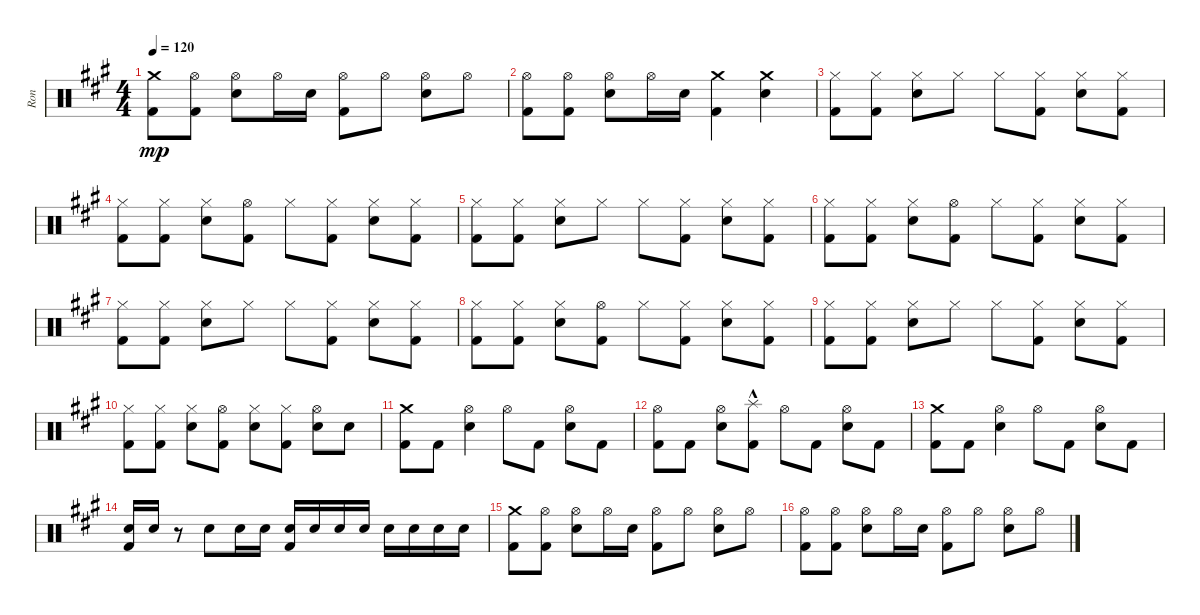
\track ("Ron" "Ron") {instrument percussion}
\staff {score}
\articulation defaults
\ts (4 4)
\tempo 120
\clef neutral
\ks a
("Crash medium (hit)" "Kick (hit) 2").8{dy mp} ("Hi-Hat (open)" "Kick (hit) 2").8 ("Hi-Hat (open)" "Electric Snare (hit)").8 "Hi-Hat (open)".16 "Electric Snare (hit)".16 ("Hi-Hat (open)" "Kick (hit) 2").8 "Hi-Hat (open)".8 ("Hi-Hat (open)" "Electric Snare (hit)").8 "Hi-Hat (open)".8 |
("Hi-Hat (open)" "Kick (hit) 2").8 ("Hi-Hat (open)" "Kick (hit) 2").8 ("Hi-Hat (open)" "Electric Snare (hit)").8 "Hi-Hat (open)".16 "Electric Snare (hit)".16 ("Crash medium (hit)" "Kick (hit) 2").4 ("Crash medium (hit)" "Electric Snare (hit)").4 |
("Hi-Hat (closed)" "Kick (hit) 2").8 ("Hi-Hat (closed)" "Kick (hit) 2").8 ("Hi-Hat (closed)" "Electric Snare (hit)").8 "Hi-Hat (closed)".8 "Hi-Hat (closed)".8 ("Hi-Hat (closed)" "Kick (hit) 2").8 ("Hi-Hat (closed)" "Electric Snare (hit)").8 ("Hi-Hat (closed)" "Kick (hit) 2").8 |
("Hi-Hat (closed)" "Kick (hit) 2").8 ("Hi-Hat (closed)" "Kick (hit) 2").8 ("Hi-Hat (closed)" "Electric Snare (hit)").8 ("Hi-Hat (open)" "Kick (hit) 2").8 "Hi-Hat (closed)".8 ("Hi-Hat (closed)" "Kick (hit) 2").8 ("Hi-Hat (closed)" "Electric Snare (hit)").8 ("Hi-Hat (closed)" "Kick (hit) 2").8 |
("Hi-Hat (closed)" "Kick (hit) 2").8 ("Hi-Hat (closed)" "Kick (hit) 2").8 ("Hi-Hat (closed)" "Electric Snare (hit)").8 "Hi-Hat (closed)".8 "Hi-Hat (closed)".8 ("Hi-Hat (closed)" "Kick (hit) 2").8 ("Hi-Hat (closed)" "Electric Snare (hit)").8 ("Hi-Hat (closed)" "Kick (hit) 2").8 |
("Hi-Hat (closed)" "Kick (hit) 2").8 ("Hi-Hat (closed)" "Kick (hit) 2").8 ("Hi-Hat (closed)" "Electric Snare (hit)").8 ("Hi-Hat (open)" "Kick (hit) 2").8 "Hi-Hat (closed)".8 ("Hi-Hat (closed)" "Kick (hit) 2").8 ("Hi-Hat (closed)" "Electric Snare (hit)").8 ("Hi-Hat (closed)" "Kick (hit) 2").8 |
("Hi-Hat (closed)" "Kick (hit) 2").8 ("Hi-Hat (closed)" "Kick (hit) 2").8 ("Hi-Hat (closed)" "Electric Snare (hit)").8 "Hi-Hat (closed)".8 "Hi-Hat (closed)".8 ("Hi-Hat (closed)" "Kick (hit) 2").8 ("Hi-Hat (closed)" "Electric Snare (hit)").8 ("Hi-Hat (closed)" "Kick (hit) 2").8 |
("Hi-Hat (closed)" "Kick (hit) 2").8 ("Hi-Hat (closed)" "Kick (hit) 2").8 ("Hi-Hat (closed)" "Electric Snare (hit)").8 ("Hi-Hat (open)" "Kick (hit) 2").8 "Hi-Hat (closed)".8 ("Hi-Hat (closed)" "Kick (hit) 2").8 ("Hi-Hat (closed)" "Electric Snare (hit)").8 ("Hi-Hat (closed)" "Kick (hit) 2").8 |
("Hi-Hat (closed)" "Kick (hit) 2").8 ("Hi-Hat (closed)" "Kick (hit) 2").8 ("Hi-Hat (closed)" "Electric Snare (hit)").8 "Hi-Hat (closed)".8 "Hi-Hat (closed)".8 ("Hi-Hat (closed)" "Kick (hit) 2").8 ("Hi-Hat (closed)" "Electric Snare (hit)").8 ("Hi-Hat (closed)" "Kick (hit) 2").8 |
("Hi-Hat (closed)" "Kick (hit) 2").8 ("Hi-Hat (closed)" "Kick (hit) 2").8 ("Hi-Hat (closed)" "Electric Snare (hit)").8 ("Hi-Hat (open)" "Kick (hit) 2").8 ("Hi-Hat (closed)" "Electric Snare (hit)").8 ("Hi-Hat (closed)" "Kick (hit) 2").8 ("Hi-Hat (open)" "Electric Snare (hit)").8 "Electric Snare (hit)".8 |
("Crash medium (hit)" "Kick (hit) 2").8 "Kick (hit) 2".8 ("Hi-Hat (open)" "Electric Snare (hit)").4 "Hi-Hat (open)".8 "Kick (hit) 2".8 ("Hi-Hat (open)" "Electric Snare (hit)").8 "Kick (hit) 2".8 |
("Hi-Hat (open)" "Kick (hit) 2").8 "Kick (hit) 2".8 ("Hi-Hat (open)" "Electric Snare (hit)").8 ("Splash (hit)"{hac} "Kick (hit) 2").8 "Hi-Hat (open)".8 "Kick (hit) 2".8 ("Hi-Hat (open)" "Electric Snare (hit)").8 "Kick (hit) 2".8 |
("Crash medium (hit)" "Kick (hit) 2").8 "Kick (hit) 2".8 ("Hi-Hat (open)" "Electric Snare (hit)").4 "Hi-Hat (open)".8 "Kick (hit) 2".8 ("Hi-Hat (open)" "Electric Snare (hit)").8 "Kick (hit) 2".8 |
("Electric Snare (hit)" "Kick (hit) 2").16 "Electric Snare (hit)".16 r.8 "Electric Snare (hit)".8 "Electric Snare (hit)".16 "Electric Snare (hit)".16 ("Electric Snare (hit)" "Kick (hit) 2").16 "Electric Snare (hit)".16 "Electric Snare (hit)".16 "Electric Snare (hit)".16 "Electric Snare (hit)".16 "Electric Snare (hit)".16 "Electric Snare (hit)".16 "Electric Snare (hit)".16 |
("Crash medium (hit)" "Kick (hit) 2").8 ("Hi-Hat (open)" "Kick (hit) 2").8 ("Hi-Hat (open)" "Electric Snare (hit)").8 "Hi-Hat (open)".16 "Electric Snare (hit)".16 ("Hi-Hat (open)" "Kick (hit) 2").8 "Hi-Hat (open)".8 ("Hi-Hat (open)" "Electric Snare (hit)").8 "Hi-Hat (open)".8 |
("Hi-Hat (open)" "Kick (hit) 2").8 ("Hi-Hat (open)" "Kick (hit) 2").8 ("Hi-Hat (open)" "Electric Snare (hit)").8 "Hi-Hat (open)".16 "Electric Snare (hit)".16 ("Hi-Hat (open)" "Kick (hit) 2").8 "Hi-Hat (open)".8 ("Hi-Hat (open)" "Electric Snare (hit)").8 "Hi-Hat (open)".8
